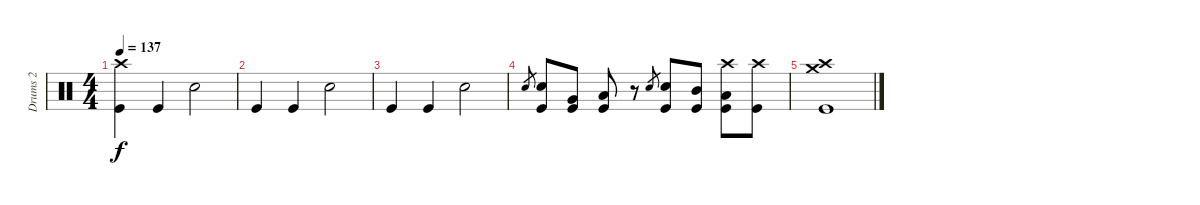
\track ("Drums 2" "Drums 2") {instrument percussion}
\staff {score}
\articulation defaults
\ts (4 4)
\tempo 137
\clef neutral
\ks c
("Crash high (hit)" "Kick (hit)").4{dy f} "Kick (hit)".4 "Snare (hit) 2".2 |
"Kick (hit)".4 "Kick (hit)".4 "Snare (hit) 2".2 |
"Kick (hit)".4 "Kick (hit)".4 "Snare (hit) 2".2 |
"Snare (hit) 2".8{gr} ("Snare (hit) 2" "Kick (hit)").8 ("Very Low Tom (hit)" "Kick (hit)").8 ("Low Floor Tom (hit)" "Kick (hit)").8 r.8 "Snare (hit) 2".8{gr} ("Snare (hit) 2" "Kick (hit)").8 ("Mid Tom (hit)" "Kick (hit)").8 ("Crash high (hit)" "Low Floor Tom (hit)" "Kick (hit)").8 ("Crash high (hit)" "Kick (hit)").8 |
("Crash medium (hit)" "Crash high (hit)" "Kick (hit)").1
